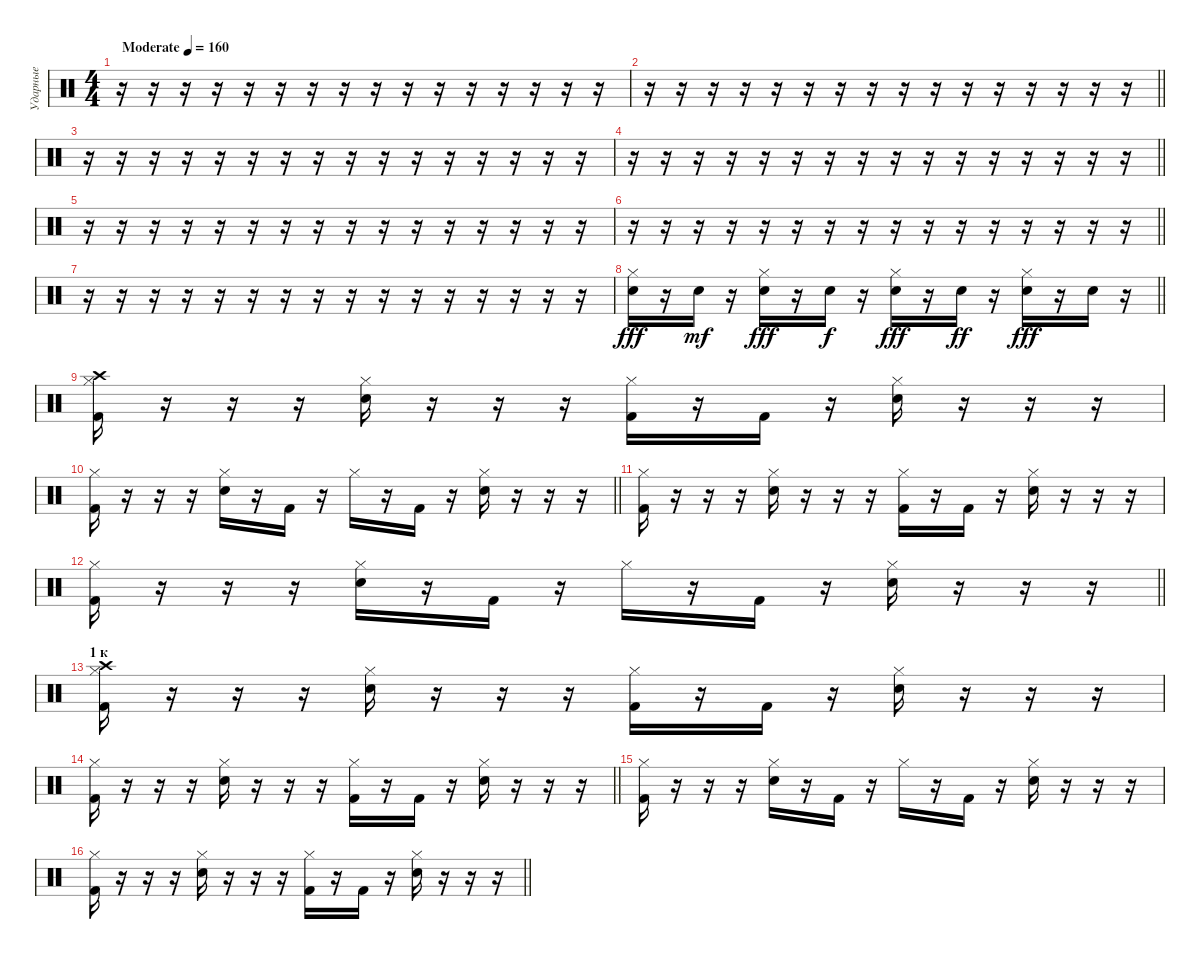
\track ("Ударные" "Ударные") {instrument percussion}
\staff {score}
\articulation defaults
\ts (4 4)
\tempo (160 "Moderate")
\clef neutral
\ks c
r.16{dy fff} r.16 r.16 r.16 r.16 r.16 r.16 r.16 r.16 r.16 r.16 r.16 r.16 r.16 r.16 r.16 |
\barLineRight lightlight
r.16 r.16 r.16 r.16 r.16 r.16 r.16 r.16 r.16 r.16 r.16 r.16 r.16 r.16 r.16 r.16 |
r.16 r.16 r.16 r.16 r.16 r.16 r.16 r.16 r.16 r.16 r.16 r.16 r.16 r.16 r.16 r.16 |
\barLineRight lightlight
r.16 r.16 r.16 r.16 r.16 r.16 r.16 r.16 r.16 r.16 r.16 r.16 r.16 r.16 r.16 r.16 |
r.16 r.16 r.16 r.16 r.16 r.16 r.16 r.16 r.16 r.16 r.16 r.16 r.16 r.16 r.16 r.16 |
\barLineRight lightlight
r.16 r.16 r.16 r.16 r.16 r.16 r.16 r.16 r.16 r.16 r.16 r.16 r.16 r.16 r.16 r.16 |
r.16 r.16 r.16 r.16 r.16 r.16 r.16 r.16 r.16 r.16 r.16 r.16 r.16 r.16 r.16 r.16 |
\barLineRight lightlight
("Electric Snare (hit)" "Hi-Hat (closed)").16 r.16 "Electric Snare (hit)".16{dy mf} r.16 ("Electric Snare (hit)" "Hi-Hat (closed)").16{dy fff} r.16 "Electric Snare (hit)".16{dy f} r.16 ("Electric Snare (hit)" "Hi-Hat (closed)").16{dy fff} r.16 "Electric Snare (hit)".16{dy ff} r.16 ("Electric Snare (hit)" "Hi-Hat (closed)").16{dy fff} r.16 "Electric Snare (hit)".16 r.16 |
("Kick (hit) 2" "Hi-Hat (closed)" "Crash high (hit)").16 r.16 r.16 r.16 ("Snare (hit) 2" "Hi-Hat (closed)").16 r.16 r.16 r.16 ("Kick (hit) 2" "Hi-Hat (closed)").16 r.16 "Kick (hit) 2".16 r.16 ("Snare (hit) 2" "Hi-Hat (closed)").16 r.16 r.16 r.16 |
\barLineRight lightlight
("Kick (hit) 2" "Hi-Hat (closed)").16 r.16 r.16 r.16 ("Snare (hit) 2" "Hi-Hat (closed)").16 r.16 "Kick (hit) 2".16 r.16 "Hi-Hat (closed)".16 r.16 "Kick (hit) 2".16 r.16 ("Snare (hit) 2" "Hi-Hat (closed)").16 r.16 r.16 r.16 |
("Kick (hit) 2" "Hi-Hat (closed)").16 r.16 r.16 r.16 ("Snare (hit) 2" "Hi-Hat (closed)").16 r.16 r.16 r.16 ("Kick (hit) 2" "Hi-Hat (closed)").16 r.16 "Kick (hit) 2".16 r.16 ("Snare (hit) 2" "Hi-Hat (closed)").16 r.16 r.16 r.16 |
\barLineRight lightlight
("Kick (hit) 2" "Hi-Hat (closed)").16 r.16 r.16 r.16 ("Snare (hit) 2" "Hi-Hat (closed)").16 r.16 "Kick (hit) 2".16 r.16 "Hi-Hat (closed)".16 r.16 "Kick (hit) 2".16 r.16 ("Snare (hit) 2" "Hi-Hat (closed)").16 r.16 r.16 r.16 |
\section ("" "1 к")
("Kick (hit) 2" "Hi-Hat (closed)" "Crash high (hit)").16 r.16 r.16 r.16 ("Snare (hit) 2" "Hi-Hat (closed)").16 r.16 r.16 r.16 ("Kick (hit) 2" "Hi-Hat (closed)").16 r.16 "Kick (hit) 2".16 r.16 ("Snare (hit) 2" "Hi-Hat (closed)").16 r.16 r.16 r.16 |
\barLineRight lightlight
("Kick (hit) 2" "Hi-Hat (closed)").16 r.16 r.16 r.16 ("Snare (hit) 2" "Hi-Hat (closed)").16 r.16 r.16 r.16 ("Kick (hit) 2" "Hi-Hat (closed)").16 r.16 "Kick (hit) 2".16 r.16 ("Snare (hit) 2" "Hi-Hat (closed)").16 r.16 r.16 r.16 |
("Kick (hit) 2" "Hi-Hat (closed)").16 r.16 r.16 r.16 ("Snare (hit) 2" "Hi-Hat (closed)").16 r.16 "Kick (hit) 2".16 r.16 "Hi-Hat (closed)".16 r.16 "Kick (hit) 2".16 r.16 ("Snare (hit) 2" "Hi-Hat (closed)").16 r.16 r.16 r.16 |
\barLineRight lightlight
("Kick (hit) 2" "Hi-Hat (closed)").16 r.16 r.16 r.16 ("Snare (hit) 2" "Hi-Hat (closed)").16 r.16 r.16 r.16 ("Kick (hit) 2" "Hi-Hat (closed)").16 r.16 "Kick (hit) 2".16 r.16 ("Snare (hit) 2" "Hi-Hat (closed)").16 r.16 r.16 r.16
